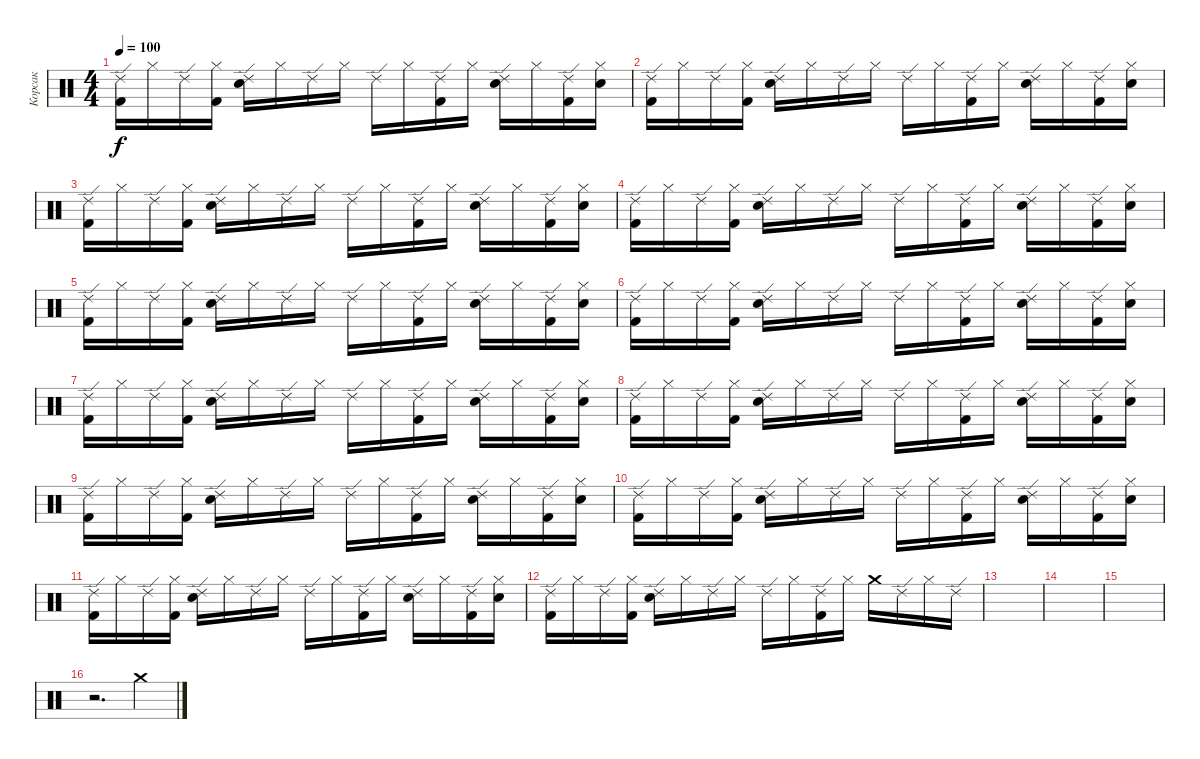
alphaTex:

\track ("Корсак" "Корсак") {instrument percussion}
\staff {score}
\articulation defaults
\ts (4 4)
\tempo 100
\clef neutral
\ks c
("Ride (edge) 2" "Kick (hit) 2").16{dy f} "Hi-Hat (closed)".16 "Ride (edge) 2".16 ("Hi-Hat (closed)" "Kick (hit) 2").16 ("Ride (edge) 2" "Electric Snare (hit)").16 "Hi-Hat (closed)".16 "Ride (edge) 2".16 "Hi-Hat (closed)".16 "Ride (edge) 2".16 "Hi-Hat (closed)".16 ("Ride (edge) 2" "Kick (hit) 2").16 "Hi-Hat (closed)".16 ("Ride (edge) 2" "Electric Snare (hit)").16 "Hi-Hat (closed)".16 ("Ride (edge) 2" "Kick (hit) 2").16 ("Hi-Hat (closed)" "Electric Snare (hit)").16 |
("Ride (edge) 2" "Kick (hit) 2").16 "Hi-Hat (closed)".16 "Ride (edge) 2".16 ("Hi-Hat (closed)" "Kick (hit) 2").16 ("Ride (edge) 2" "Electric Snare (hit)").16 "Hi-Hat (closed)".16 "Ride (edge) 2".16 "Hi-Hat (closed)".16 "Ride (edge) 2".16 "Hi-Hat (closed)".16 ("Ride (edge) 2" "Kick (hit) 2").16 "Hi-Hat (closed)".16 ("Ride (edge) 2" "Electric Snare (hit)").16 "Hi-Hat (closed)".16 ("Ride (edge) 2" "Kick (hit) 2").16 ("Hi-Hat (closed)" "Electric Snare (hit)").16 |
("Ride (edge) 2" "Kick (hit) 2").16 "Hi-Hat (closed)".16 "Ride (edge) 2".16 ("Hi-Hat (closed)" "Kick (hit) 2").16 ("Ride (edge) 2" "Electric Snare (hit)").16 "Hi-Hat (closed)".16 "Ride (edge) 2".16 "Hi-Hat (closed)".16 "Ride (edge) 2".16 "Hi-Hat (closed)".16 ("Ride (edge) 2" "Kick (hit) 2").16 "Hi-Hat (closed)".16 ("Ride (edge) 2" "Electric Snare (hit)").16 "Hi-Hat (closed)".16 ("Ride (edge) 2" "Kick (hit) 2").16 ("Hi-Hat (closed)" "Electric Snare (hit)").16 |
("Ride (edge) 2" "Kick (hit) 2").16 "Hi-Hat (closed)".16 "Ride (edge) 2".16 ("Hi-Hat (closed)" "Kick (hit) 2").16 ("Ride (edge) 2" "Electric Snare (hit)").16 "Hi-Hat (closed)".16 "Ride (edge) 2".16 "Hi-Hat (closed)".16 "Ride (edge) 2".16 "Hi-Hat (closed)".16 ("Ride (edge) 2" "Kick (hit) 2").16 "Hi-Hat (closed)".16 ("Ride (edge) 2" "Electric Snare (hit)").16 "Hi-Hat (closed)".16 ("Ride (edge) 2" "Kick (hit) 2").16 ("Hi-Hat (closed)" "Electric Snare (hit)").16 |
("Ride (edge) 2" "Kick (hit) 2").16 "Hi-Hat (closed)".16 "Ride (edge) 2".16 ("Hi-Hat (closed)" "Kick (hit) 2").16 ("Ride (edge) 2" "Electric Snare (hit)").16 "Hi-Hat (closed)".16 "Ride (edge) 2".16 "Hi-Hat (closed)".16 "Ride (edge) 2".16 "Hi-Hat (closed)".16 ("Ride (edge) 2" "Kick (hit) 2").16 "Hi-Hat (closed)".16 ("Ride (edge) 2" "Electric Snare (hit)").16 "Hi-Hat (closed)".16 ("Ride (edge) 2" "Kick (hit) 2").16 ("Hi-Hat (closed)" "Electric Snare (hit)").16 |
("Ride (edge) 2" "Kick (hit) 2").16 "Hi-Hat (closed)".16 "Ride (edge) 2".16 ("Hi-Hat (closed)" "Kick (hit) 2").16 ("Ride (edge) 2" "Electric Snare (hit)").16 "Hi-Hat (closed)".16 "Ride (edge) 2".16 "Hi-Hat (closed)".16 "Ride (edge) 2".16 "Hi-Hat (closed)".16 ("Ride (edge) 2" "Kick (hit) 2").16 "Hi-Hat (closed)".16 ("Ride (edge) 2" "Electric Snare (hit)").16 "Hi-Hat (closed)".16 ("Ride (edge) 2" "Kick (hit) 2").16 ("Hi-Hat (closed)" "Electric Snare (hit)").16 |
("Ride (edge) 2" "Kick (hit) 2").16 "Hi-Hat (closed)".16 "Ride (edge) 2".16 ("Hi-Hat (closed)" "Kick (hit) 2").16 ("Ride (edge) 2" "Electric Snare (hit)").16 "Hi-Hat (closed)".16 "Ride (edge) 2".16 "Hi-Hat (closed)".16 "Ride (edge) 2".16 "Hi-Hat (closed)".16 ("Ride (edge) 2" "Kick (hit) 2").16 "Hi-Hat (closed)".16 ("Ride (edge) 2" "Electric Snare (hit)").16 "Hi-Hat (closed)".16 ("Ride (edge) 2" "Kick (hit) 2").16 ("Hi-Hat (closed)" "Electric Snare (hit)").16 |
("Ride (edge) 2" "Kick (hit) 2").16 "Hi-Hat (closed)".16 "Ride (edge) 2".16 ("Hi-Hat (closed)" "Kick (hit) 2").16 ("Ride (edge) 2" "Electric Snare (hit)").16 "Hi-Hat (closed)".16 "Ride (edge) 2".16 "Hi-Hat (closed)".16 "Ride (edge) 2".16 "Hi-Hat (closed)".16 ("Ride (edge) 2" "Kick (hit) 2").16 "Hi-Hat (closed)".16 ("Ride (edge) 2" "Electric Snare (hit)").16 "Hi-Hat (closed)".16 ("Ride (edge) 2" "Kick (hit) 2").16 ("Hi-Hat (closed)" "Electric Snare (hit)").16 |
("Ride (edge) 2" "Kick (hit) 2").16 "Hi-Hat (closed)".16 "Ride (edge) 2".16 ("Hi-Hat (closed)" "Kick (hit) 2").16 ("Ride (edge) 2" "Electric Snare (hit)").16 "Hi-Hat (closed)".16 "Ride (edge) 2".16 "Hi-Hat (closed)".16 "Ride (edge) 2".16 "Hi-Hat (closed)".16 ("Ride (edge) 2" "Kick (hit) 2").16 "Hi-Hat (closed)".16 ("Ride (edge) 2" "Electric Snare (hit)").16 "Hi-Hat (closed)".16 ("Ride (edge) 2" "Kick (hit) 2").16 ("Hi-Hat (closed)" "Electric Snare (hit)").16 |
("Ride (edge) 2" "Kick (hit) 2").16 "Hi-Hat (closed)".16 "Ride (edge) 2".16 ("Hi-Hat (closed)" "Kick (hit) 2").16 ("Ride (edge) 2" "Electric Snare (hit)").16 "Hi-Hat (closed)".16 "Ride (edge) 2".16 "Hi-Hat (closed)".16 "Ride (edge) 2".16 "Hi-Hat (closed)".16 ("Ride (edge) 2" "Kick (hit) 2").16 "Hi-Hat (closed)".16 ("Ride (edge) 2" "Electric Snare (hit)").16 "Hi-Hat (closed)".16 ("Ride (edge) 2" "Kick (hit) 2").16 ("Hi-Hat (closed)" "Electric Snare (hit)").16 |
("Ride (edge) 2" "Kick (hit) 2").16 "Hi-Hat (closed)".16 "Ride (edge) 2".16 ("Hi-Hat (closed)" "Kick (hit) 2").16 ("Ride (edge) 2" "Electric Snare (hit)").16 "Hi-Hat (closed)".16 "Ride (edge) 2".16 "Hi-Hat (closed)".16 "Ride (edge) 2".16 "Hi-Hat (closed)".16 ("Ride (edge) 2" "Kick (hit) 2").16 "Hi-Hat (closed)".16 ("Ride (edge) 2" "Electric Snare (hit)").16 "Hi-Hat (closed)".16 ("Ride (edge) 2" "Kick (hit) 2").16 ("Hi-Hat (closed)" "Electric Snare (hit)").16 |
("Ride (edge) 2" "Kick (hit) 2").16 "Hi-Hat (closed)".16 "Ride (edge) 2".16 ("Hi-Hat (closed)" "Kick (hit) 2").16 ("Ride (edge) 2" "Electric Snare (hit)").16 "Hi-Hat (closed)".16 "Ride (edge) 2".16 "Hi-Hat (closed)".16 "Ride (edge) 2".16 "Hi-Hat (closed)".16 ("Ride (edge) 2" "Kick (hit) 2").16 "Hi-Hat (closed)".16 "Crash medium (hit)".16 "Ride (edge) 2".16 "Hi-Hat (closed)".16 "Ride (edge) 2".16 |
|
|
|
r.2{d} "Crash medium (hit)".4
